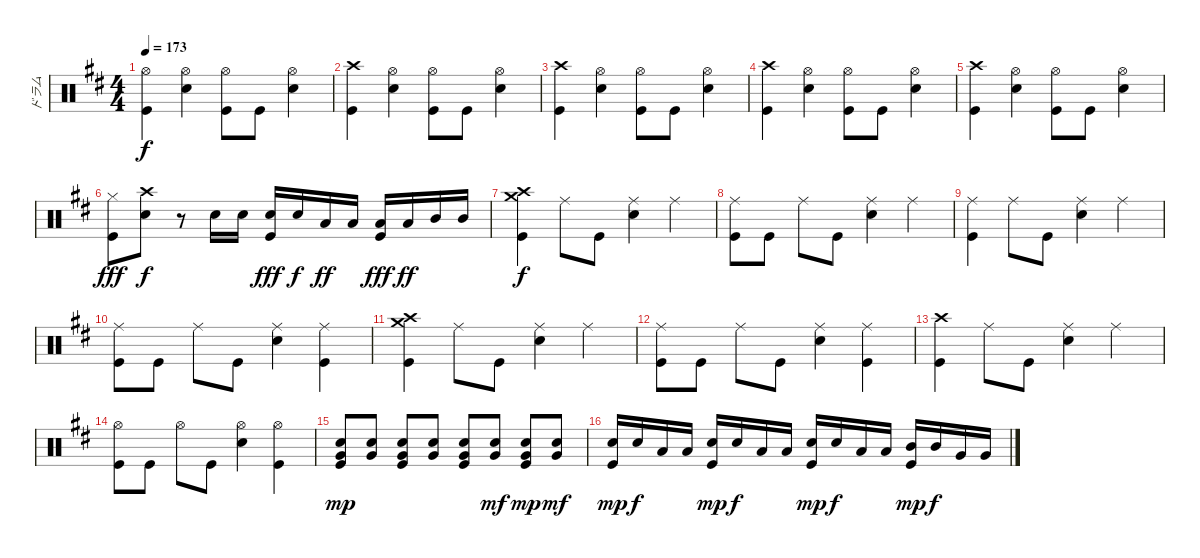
\track ("ドラム" "ドラム") {mute instrument percussion}
\staff {score}
\articulation defaults
\ts (4 4)
\tempo 173
\clef neutral
\ks d
("Hi-Hat (open)" "Kick (hit)").4{dy f} ("Hi-Hat (open)" "Snare (hit) 2").4 ("Hi-Hat (open)" "Kick (hit)").8 "Kick (hit)".8 ("Hi-Hat (open)" "Snare (hit) 2").4 |
("Crash high (hit)" "Kick (hit)").4 ("Hi-Hat (open)" "Snare (hit) 2").4 ("Hi-Hat (open)" "Kick (hit)").8 "Kick (hit)".8 ("Hi-Hat (open)" "Snare (hit) 2").4 |
("Crash high (hit)" "Kick (hit)").4 ("Hi-Hat (open)" "Snare (hit) 2").4 ("Hi-Hat (open)" "Kick (hit)").8 "Kick (hit)".8 ("Hi-Hat (open)" "Snare (hit) 2").4 |
("Crash high (hit)" "Kick (hit)").4 ("Hi-Hat (open)" "Snare (hit) 2").4 ("Hi-Hat (open)" "Kick (hit)").8 "Kick (hit)".8 ("Hi-Hat (open)" "Snare (hit) 2").4 |
("Crash high (hit)" "Kick (hit)").4 ("Hi-Hat (open)" "Snare (hit) 2").4 ("Hi-Hat (open)" "Kick (hit)").8 "Kick (hit)".8 ("Hi-Hat (open)" "Snare (hit) 2").4 |
("Hi-Hat (closed)" "Kick (hit)").8{dy fff} ("Crash high (hit)" "Snare (hit) 2").8{dy f} r.8 "Snare (hit) 2".16 "Snare (hit) 2".16 ("Snare (hit) 2" "Kick (hit)").16{dy fff} "Snare (hit) 2".16{dy f} "Low Tom (hit)".16{dy ff} "Low Tom (hit)".16 ("Low Tom (hit)" "Kick (hit)").16{dy fff} "Low Tom (hit)".16{dy ff} "Mid Tom (hit)".16 "Mid Tom (hit)".16 |
("Crash high (hit)" "Crash medium (hit)" "Kick (hit)").4{dy f} "Ride (middle)".8 "Kick (hit)".8 ("Ride (middle)" "Snare (hit) 2").4 "Ride (middle)".4 |
("Ride (middle)" "Kick (hit)").8 "Kick (hit)".8 "Ride (middle)".8 "Kick (hit)".8 ("Ride (middle)" "Snare (hit) 2").4 "Ride (middle)".4 |
("Ride (middle)" "Kick (hit)").4 "Ride (middle)".8 "Kick (hit)".8 ("Ride (middle)" "Snare (hit) 2").4 "Ride (middle)".4 |
("Ride (middle)" "Kick (hit)").8 "Kick (hit)".8 "Ride (middle)".8 "Kick (hit)".8 ("Ride (middle)" "Snare (hit) 2").4 ("Ride (middle)" "Kick (hit)").4 |
("Crash high (hit)" "Crash medium (hit)" "Kick (hit)").4 "Ride (middle)".8 "Kick (hit)".8 ("Ride (middle)" "Snare (hit) 2").4 "Ride (middle)".4 |
("Ride (middle)" "Kick (hit)").8 "Kick (hit)".8 "Ride (middle)".8 "Kick (hit)".8 ("Ride (middle)" "Snare (hit) 2").4 ("Ride (middle)" "Kick (hit)").4 |
("Crash high (hit)" "Kick (hit)").4 "Ride (middle)".8 "Kick (hit)".8 ("Ride (middle)" "Snare (hit) 2").4 "Ride (middle)".4 |
("Hi-Hat (open)" "Kick (hit)").8 "Kick (hit)".8 "Hi-Hat (open)".8 "Kick (hit)".8 ("Hi-Hat (open)" "Snare (hit) 2").4 ("Hi-Hat (open)" "Kick (hit)").4 |
("Very Low Tom (hit)" "Snare (hit) 2" "Kick (hit)").8{dy mp} ("Very Low Tom (hit)" "Snare (hit) 2").8 ("Very Low Tom (hit)" "Snare (hit) 2" "Kick (hit)").8 ("Very Low Tom (hit)" "Snare (hit) 2").8 ("Very Low Tom (hit)" "Snare (hit) 2" "Kick (hit)").8 ("Very Low Tom (hit)" "Snare (hit) 2").8{dy mf} ("Very Low Tom (hit)" "Snare (hit) 2" "Kick (hit)").8{dy mp} ("Very Low Tom (hit)" "Snare (hit) 2").8{dy mf} |
("Snare (hit) 2" "Kick (hit)").16{dy mp} "Snare (hit) 2".16{dy f} "Low Tom (hit)".16 "Low Tom (hit)".16 ("Snare (hit) 2" "Kick (hit)").16{dy mp} "Snare (hit) 2".16{dy f} "Low Tom (hit)".16 "Low Tom (hit)".16 ("Snare (hit) 2" "Kick (hit)").16{dy mp} "Snare (hit) 2".16{dy f} "Low Tom (hit)".16 "Low Tom (hit)".16 ("Mid Tom (hit)" "Kick (hit)").16{dy mp} "Mid Tom (hit)".16{dy f} "Very Low Tom (hit)".16 "Very Low Tom (hit)".16
